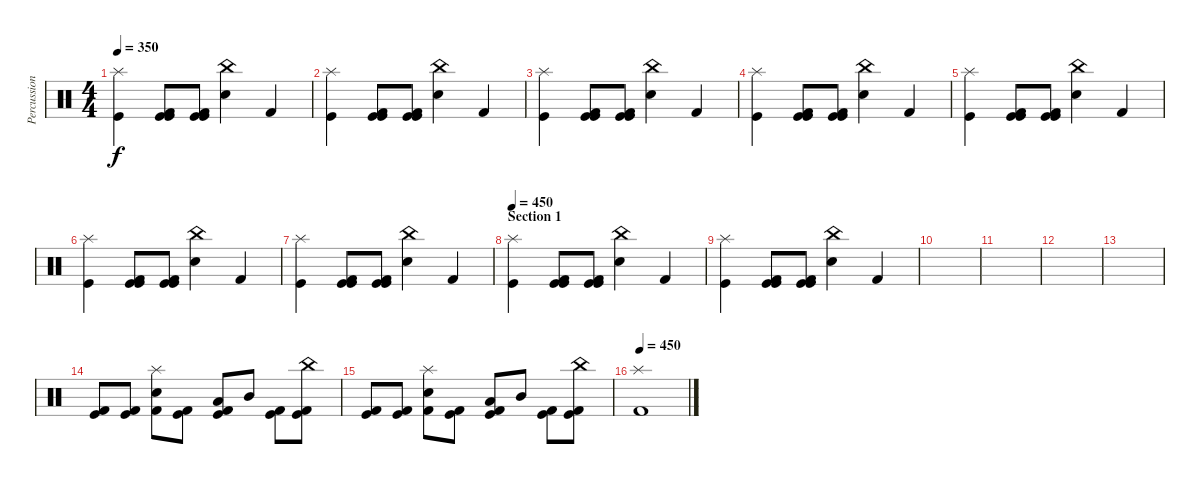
\track ("Percussions" "Percussion") {instrument percussion}
\staff {score}
\articulation defaults
\ts (4 4)
\tempo 350
\clef neutral
\ks c
("Splash (hit)" "Kick (hit)").4{dy f} ("Kick (hit) 2" "Kick (hit)" "Kick (hit)").8 ("Kick (hit) 2" "Kick (hit)" "Kick (hit)").8 ("China (hit)" "Snare (hit) 2").4 "Kick (hit) 2".4 |
("Splash (hit)" "Kick (hit)").4 ("Kick (hit) 2" "Kick (hit)" "Kick (hit)").8 ("Kick (hit) 2" "Kick (hit)" "Kick (hit)").8 ("China (hit)" "Snare (hit) 2").4 "Kick (hit) 2".4 |
("Splash (hit)" "Kick (hit)").4 ("Kick (hit) 2" "Kick (hit)" "Kick (hit)").8 ("Kick (hit) 2" "Kick (hit)" "Kick (hit)").8 ("China (hit)" "Snare (hit) 2").4 "Kick (hit) 2".4 |
("Splash (hit)" "Kick (hit)").4 ("Kick (hit) 2" "Kick (hit)" "Kick (hit)").8 ("Kick (hit) 2" "Kick (hit)" "Kick (hit)").8 ("China (hit)" "Snare (hit) 2").4 "Kick (hit) 2".4 |
("Splash (hit)" "Kick (hit)").4 ("Kick (hit) 2" "Kick (hit)" "Kick (hit)").8 ("Kick (hit) 2" "Kick (hit)" "Kick (hit)").8 ("China (hit)" "Snare (hit) 2").4 "Kick (hit) 2".4 |
("Splash (hit)" "Kick (hit)").4 ("Kick (hit) 2" "Kick (hit)" "Kick (hit)").8 ("Kick (hit) 2" "Kick (hit)" "Kick (hit)").8 ("China (hit)" "Snare (hit) 2").4 "Kick (hit) 2".4 |
("Splash (hit)" "Kick (hit)").4 ("Kick (hit) 2" "Kick (hit)" "Kick (hit)").8 ("Kick (hit) 2" "Kick (hit)" "Kick (hit)").8 ("China (hit)" "Snare (hit) 2").4 "Kick (hit) 2".4 |
\section ("" "Section 1")
\tempo 450
("Splash (hit)" "Kick (hit)").4 ("Kick (hit) 2" "Kick (hit)" "Kick (hit)").8 ("Kick (hit) 2" "Kick (hit)" "Kick (hit)").8 ("China (hit)" "Snare (hit) 2").4 "Kick (hit) 2".4 |
("Splash (hit)" "Kick (hit)").4 ("Kick (hit) 2" "Kick (hit)" "Kick (hit)").8 ("Kick (hit) 2" "Kick (hit)" "Kick (hit)").8 ("China (hit)" "Snare (hit) 2").4 "Kick (hit) 2".4 |
|
|
|
|
("Kick (hit)" "Kick (hit) 2").8 ("Kick (hit)" "Kick (hit) 2").8 ("Snare (hit) 2" "Splash (hit)" "Kick (hit) 2").8 ("Kick (hit)" "Kick (hit) 2").8 ("Kick (hit)" "Low Tom (hit)" "Kick (hit) 2").8 "Mid Tom (hit)".8 ("Kick (hit)" "Kick (hit) 2").8 ("Kick (hit)" "Kick (hit) 2" "China (hit)").8 |
("Kick (hit)" "Kick (hit) 2").8 ("Kick (hit)" "Kick (hit) 2").8 ("Snare (hit) 2" "Splash (hit)" "Kick (hit) 2").8 ("Kick (hit)" "Kick (hit) 2").8 ("Kick (hit)" "Low Tom (hit)" "Kick (hit) 2").8 "Mid Tom (hit)".8 ("Kick (hit)" "Kick (hit) 2").8 ("Kick (hit)" "Kick (hit) 2" "China (hit)").8 |
\tempo 450
("Splash (hit)" "Kick (hit) 2").1
